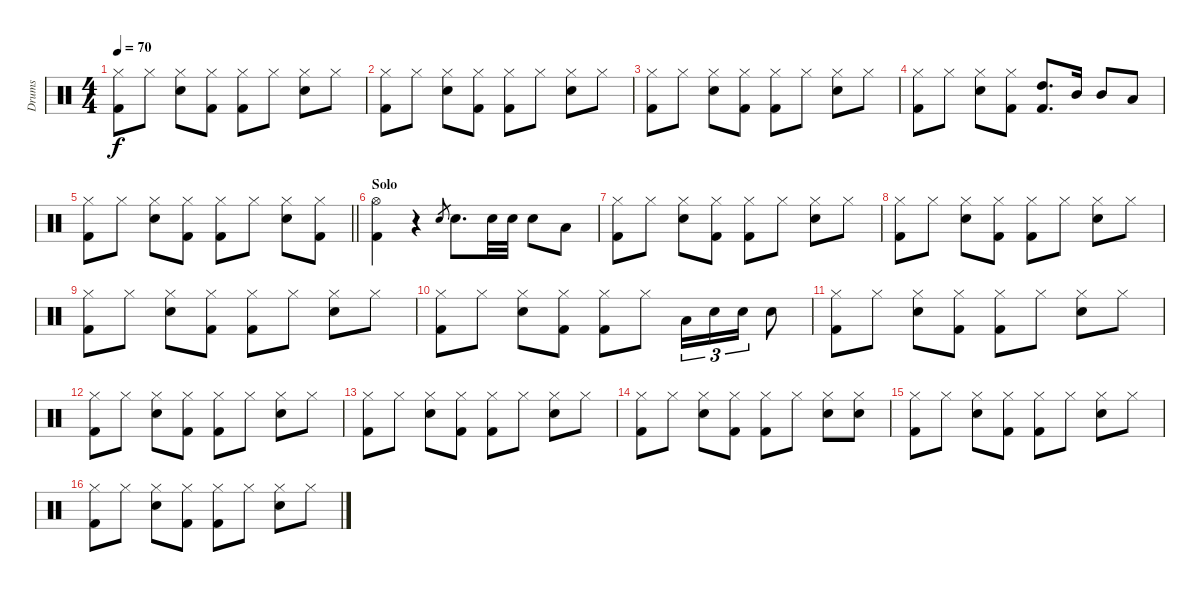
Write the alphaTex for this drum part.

\track ("Drums" "Drums") {instrument percussion}
\staff {score}
\articulation defaults
\ts (4 4)
\tempo 70
\clef neutral
\ks c
("Kick (hit) 2" "Hi-Hat (closed)").8{dy f} "Hi-Hat (closed)".8 ("Snare (hit) 2" "Hi-Hat (closed)").8 ("Kick (hit) 2" "Hi-Hat (closed)").8 ("Kick (hit) 2" "Hi-Hat (closed)").8 "Hi-Hat (closed)".8 ("Snare (hit) 2" "Hi-Hat (closed)").8 "Hi-Hat (closed)".8 |
("Kick (hit) 2" "Hi-Hat (closed)").8 "Hi-Hat (closed)".8 ("Snare (hit) 2" "Hi-Hat (closed)").8 ("Kick (hit) 2" "Hi-Hat (closed)").8 ("Kick (hit) 2" "Hi-Hat (closed)").8 "Hi-Hat (closed)".8 ("Snare (hit) 2" "Hi-Hat (closed)").8 "Hi-Hat (closed)".8 |
("Kick (hit) 2" "Hi-Hat (closed)").8 "Hi-Hat (closed)".8 ("Snare (hit) 2" "Hi-Hat (closed)").8 ("Kick (hit) 2" "Hi-Hat (closed)").8 ("Kick (hit) 2" "Hi-Hat (closed)").8 "Hi-Hat (closed)".8 ("Snare (hit) 2" "Hi-Hat (closed)").8 "Hi-Hat (closed)".8 |
("Kick (hit) 2" "Hi-Hat (closed)").8 "Hi-Hat (closed)".8 ("Snare (hit) 2" "Hi-Hat (closed)").8 ("Kick (hit) 2" "Hi-Hat (closed)").8 ("Kick (hit) 2" "High Tom (hit)").8{d} "Mid Tom (hit)".16 "Mid Tom (hit)".8 "Low Tom (hit)".8 |
\barLineRight lightlight
("Kick (hit) 2" "Hi-Hat (closed)").8 "Hi-Hat (closed)".8 ("Snare (hit) 2" "Hi-Hat (closed)").8 ("Kick (hit) 2" "Hi-Hat (closed)").8 ("Kick (hit) 2" "Hi-Hat (closed)").8 "Hi-Hat (closed)".8 ("Snare (hit) 2" "Hi-Hat (closed)").8 ("Kick (hit) 2" "Hi-Hat (closed)").8 |
\section ("" "Solo")
("Kick (hit) 2" "Hi-Hat (open)").4 r.4 "Snare (hit) 2".8{gr} "Snare (hit) 2".8{d} "Snare (hit) 2".32 "Snare (hit) 2".32 "Snare (hit) 2".8 "Low Tom (hit)".8 |
("Kick (hit) 2" "Hi-Hat (closed)").8 "Hi-Hat (closed)".8 ("Snare (hit) 2" "Hi-Hat (closed)").8 ("Kick (hit) 2" "Hi-Hat (closed)").8 ("Kick (hit) 2" "Hi-Hat (closed)").8 "Hi-Hat (closed)".8 ("Snare (hit) 2" "Hi-Hat (closed)").8 "Hi-Hat (closed)".8 |
("Kick (hit) 2" "Hi-Hat (closed)").8 "Hi-Hat (closed)".8 ("Snare (hit) 2" "Hi-Hat (closed)").8 ("Kick (hit) 2" "Hi-Hat (closed)").8 ("Kick (hit) 2" "Hi-Hat (closed)").8 "Hi-Hat (closed)".8 ("Snare (hit) 2" "Hi-Hat (closed)").8 "Hi-Hat (closed)".8 |
("Kick (hit) 2" "Hi-Hat (closed)").8 "Hi-Hat (closed)".8 ("Snare (hit) 2" "Hi-Hat (closed)").8 ("Kick (hit) 2" "Hi-Hat (closed)").8 ("Kick (hit) 2" "Hi-Hat (closed)").8 "Hi-Hat (closed)".8 ("Snare (hit) 2" "Hi-Hat (closed)").8 "Hi-Hat (closed)".8 |
("Kick (hit) 2" "Hi-Hat (closed)").8 "Hi-Hat (closed)".8 ("Snare (hit) 2" "Hi-Hat (closed)").8 ("Kick (hit) 2" "Hi-Hat (closed)").8 ("Kick (hit) 2" "Hi-Hat (closed)").8 "Hi-Hat (closed)".8 "Low Tom (hit)".16{tu (3 2)} "Snare (hit) 2".16{tu (3 2)} "Snare (hit) 2".16{tu (3 2)} "Snare (hit) 2".8 |
("Kick (hit) 2" "Hi-Hat (closed)").8 "Hi-Hat (closed)".8 ("Snare (hit) 2" "Hi-Hat (closed)").8 ("Kick (hit) 2" "Hi-Hat (closed)").8 ("Kick (hit) 2" "Hi-Hat (closed)").8 "Hi-Hat (closed)".8 ("Snare (hit) 2" "Hi-Hat (closed)").8 "Hi-Hat (closed)".8 |
("Kick (hit) 2" "Hi-Hat (closed)").8 "Hi-Hat (closed)".8 ("Snare (hit) 2" "Hi-Hat (closed)").8 ("Kick (hit) 2" "Hi-Hat (closed)").8 ("Kick (hit) 2" "Hi-Hat (closed)").8 "Hi-Hat (closed)".8 ("Snare (hit) 2" "Hi-Hat (closed)").8 "Hi-Hat (closed)".8 |
("Kick (hit) 2" "Hi-Hat (closed)").8 "Hi-Hat (closed)".8 ("Snare (hit) 2" "Hi-Hat (closed)").8 ("Kick (hit) 2" "Hi-Hat (closed)").8 ("Kick (hit) 2" "Hi-Hat (closed)").8 "Hi-Hat (closed)".8 ("Snare (hit) 2" "Hi-Hat (closed)").8 "Hi-Hat (closed)".8 |
("Kick (hit) 2" "Hi-Hat (closed)").8 "Hi-Hat (closed)".8 ("Snare (hit) 2" "Hi-Hat (closed)").8 ("Kick (hit) 2" "Hi-Hat (closed)").8 ("Kick (hit) 2" "Hi-Hat (closed)").8 "Hi-Hat (closed)".8 ("Snare (hit) 2" "Hi-Hat (closed)").8 ("Snare (hit) 2" "Hi-Hat (closed)").8 |
("Kick (hit) 2" "Hi-Hat (closed)").8 "Hi-Hat (closed)".8 ("Snare (hit) 2" "Hi-Hat (closed)").8 ("Kick (hit) 2" "Hi-Hat (closed)").8 ("Kick (hit) 2" "Hi-Hat (closed)").8 "Hi-Hat (closed)".8 ("Snare (hit) 2" "Hi-Hat (closed)").8 "Hi-Hat (closed)".8 |
("Kick (hit) 2" "Hi-Hat (closed)").8 "Hi-Hat (closed)".8 ("Snare (hit) 2" "Hi-Hat (closed)").8 ("Kick (hit) 2" "Hi-Hat (closed)").8 ("Kick (hit) 2" "Hi-Hat (closed)").8 "Hi-Hat (closed)".8 ("Snare (hit) 2" "Hi-Hat (closed)").8 "Hi-Hat (closed)".8
